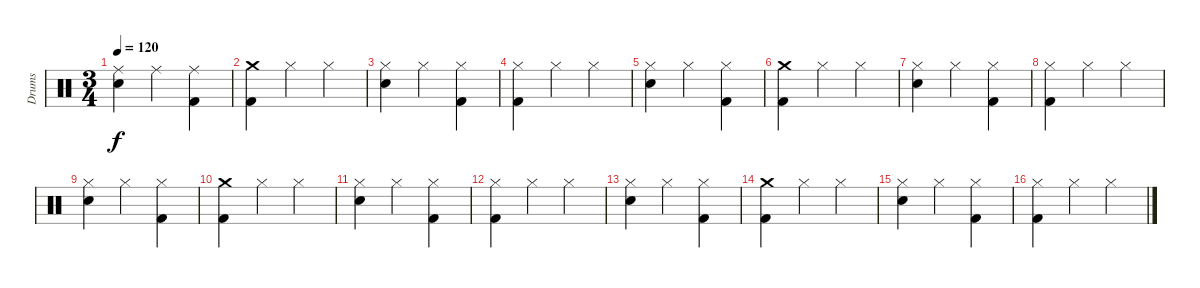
\track ("Drums" "Drums") {instrument percussion}
\staff {score}
\articulation defaults
\ts (3 4)
\tempo 120
\clef neutral
\ks c
("Ride (middle)" "Electric Snare (hit)").4{dy f} "Ride (middle)".4 ("Ride (middle)" "Kick (hit) 2").4 |
("Crash medium (hit)" "Kick (hit) 2").4 "Hi-Hat (closed)".4 "Hi-Hat (closed)".4 |
("Hi-Hat (closed)" "Electric Snare (hit)").4 "Hi-Hat (closed)".4 ("Hi-Hat (closed)" "Kick (hit) 2").4 |
("Hi-Hat (closed)" "Kick (hit) 2").4 "Hi-Hat (closed)".4 "Hi-Hat (closed)".4 |
("Hi-Hat (closed)" "Electric Snare (hit)").4 "Hi-Hat (closed)".4 ("Hi-Hat (closed)" "Kick (hit) 2").4 |
("Crash medium (hit)" "Kick (hit) 2").4 "Hi-Hat (closed)".4 "Hi-Hat (closed)".4 |
("Hi-Hat (closed)" "Electric Snare (hit)").4 "Hi-Hat (closed)".4 ("Hi-Hat (closed)" "Kick (hit) 2").4 |
("Hi-Hat (closed)" "Kick (hit) 2").4 "Hi-Hat (closed)".4 "Hi-Hat (closed)".4 |
("Hi-Hat (closed)" "Electric Snare (hit)").4 "Hi-Hat (closed)".4 ("Hi-Hat (closed)" "Kick (hit) 2").4 |
("Crash medium (hit)" "Kick (hit) 2").4 "Hi-Hat (closed)".4 "Hi-Hat (closed)".4 |
("Hi-Hat (closed)" "Electric Snare (hit)").4 "Hi-Hat (closed)".4 ("Hi-Hat (closed)" "Kick (hit) 2").4 |
("Hi-Hat (closed)" "Kick (hit) 2").4 "Hi-Hat (closed)".4 "Hi-Hat (closed)".4 |
("Hi-Hat (closed)" "Electric Snare (hit)").4 "Hi-Hat (closed)".4 ("Hi-Hat (closed)" "Kick (hit) 2").4 |
("Crash medium (hit)" "Kick (hit) 2").4 "Hi-Hat (closed)".4 "Hi-Hat (closed)".4 |
("Hi-Hat (closed)" "Electric Snare (hit)").4 "Hi-Hat (closed)".4 ("Hi-Hat (closed)" "Kick (hit) 2").4 |
("Hi-Hat (closed)" "Kick (hit) 2").4 "Hi-Hat (closed)".4 "Hi-Hat (closed)".4
